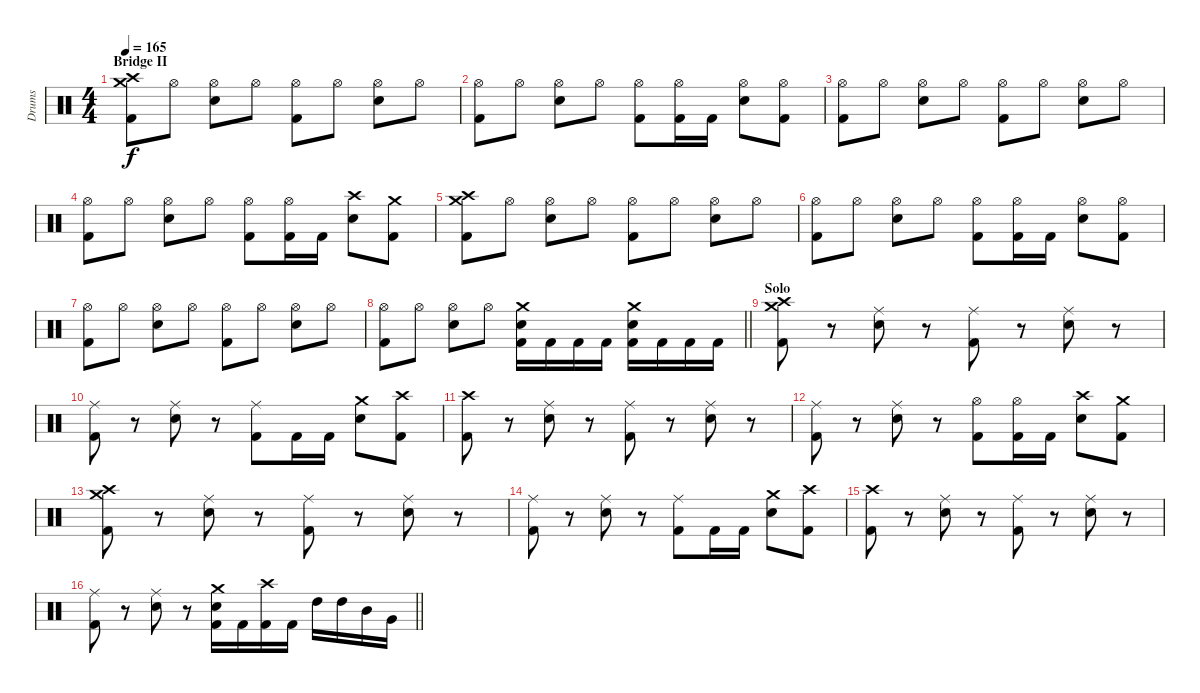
\track ("Drums" "Drums") {instrument percussion}
\staff {score}
\articulation defaults
\ts (4 4)
\section ("" "Bridge II")
\tempo 165
\clef neutral
\ks c
("Crash high (hit)" "Crash medium (hit)" "Kick (hit) 2").8{dy f} "Hi-Hat (open)".8 ("Hi-Hat (open)" "Electric Snare (hit)").8 "Hi-Hat (open)".8 ("Hi-Hat (open)" "Kick (hit) 2").8 "Hi-Hat (open)".8 ("Hi-Hat (open)" "Electric Snare (hit)").8 "Hi-Hat (open)".8 |
("Hi-Hat (open)" "Kick (hit) 2").8 "Hi-Hat (open)".8 ("Hi-Hat (open)" "Electric Snare (hit)").8 "Hi-Hat (open)".8 ("Hi-Hat (open)" "Kick (hit) 2").8 ("Hi-Hat (open)" "Kick (hit) 2").16 "Kick (hit) 2".16 ("Hi-Hat (open)" "Electric Snare (hit)").8 ("Hi-Hat (open)" "Kick (hit) 2").8 |
("Hi-Hat (open)" "Kick (hit) 2").8 "Hi-Hat (open)".8 ("Hi-Hat (open)" "Electric Snare (hit)").8 "Hi-Hat (open)".8 ("Hi-Hat (open)" "Kick (hit) 2").8 "Hi-Hat (open)".8 ("Hi-Hat (open)" "Electric Snare (hit)").8 "Hi-Hat (open)".8 |
("Hi-Hat (open)" "Kick (hit) 2").8 "Hi-Hat (open)".8 ("Hi-Hat (open)" "Electric Snare (hit)").8 "Hi-Hat (open)".8 ("Hi-Hat (open)" "Kick (hit) 2").8 ("Hi-Hat (open)" "Kick (hit) 2").16 "Kick (hit) 2".16 ("Crash high (hit)" "Electric Snare (hit)").8 ("Crash medium (hit)" "Kick (hit) 2").8 |
("Crash high (hit)" "Crash medium (hit)" "Kick (hit) 2").8 "Hi-Hat (open)".8 ("Hi-Hat (open)" "Electric Snare (hit)").8 "Hi-Hat (open)".8 ("Hi-Hat (open)" "Kick (hit) 2").8 "Hi-Hat (open)".8 ("Hi-Hat (open)" "Electric Snare (hit)").8 "Hi-Hat (open)".8 |
("Hi-Hat (open)" "Kick (hit) 2").8 "Hi-Hat (open)".8 ("Hi-Hat (open)" "Electric Snare (hit)").8 "Hi-Hat (open)".8 ("Hi-Hat (open)" "Kick (hit) 2").8 ("Hi-Hat (open)" "Kick (hit) 2").16 "Kick (hit) 2".16 ("Hi-Hat (open)" "Electric Snare (hit)").8 ("Hi-Hat (open)" "Kick (hit) 2").8 |
("Hi-Hat (open)" "Kick (hit) 2").8 "Hi-Hat (open)".8 ("Hi-Hat (open)" "Electric Snare (hit)").8 "Hi-Hat (open)".8 ("Hi-Hat (open)" "Kick (hit) 2").8 "Hi-Hat (open)".8 ("Hi-Hat (open)" "Electric Snare (hit)").8 "Hi-Hat (open)".8 |
\barLineRight lightlight
("Hi-Hat (open)" "Kick (hit) 2").8 "Hi-Hat (open)".8 ("Hi-Hat (open)" "Electric Snare (hit)").8 "Hi-Hat (open)".8 ("Crash medium (hit)" "Electric Snare (hit)" "Kick (hit) 2").16 "Kick (hit) 2".16 "Kick (hit) 2".16 "Kick (hit) 2".16 ("Crash medium (hit)" "Electric Snare (hit)" "Kick (hit) 2").16 "Kick (hit) 2".16 "Kick (hit) 2".16 "Kick (hit) 2".16 |
\section ("" "Solo")
("Crash high (hit)" "Crash medium (hit)" "Kick (hit) 2").8 r.8 ("Ride (middle)" "Electric Snare (hit)").8 r.8 ("Ride (middle)" "Kick (hit) 2").8 r.8 ("Ride (middle)" "Electric Snare (hit)").8 r.8 |
("Ride (middle)" "Kick (hit) 2").8 r.8 ("Ride (middle)" "Electric Snare (hit)").8 r.8 ("Ride (middle)" "Kick (hit) 2").8 "Kick (hit) 2".16 "Kick (hit) 2".16 ("Crash medium (hit)" "Electric Snare (hit)").8 ("Crash high (hit)" "Kick (hit) 2").8 |
("Crash high (hit)" "Kick (hit) 2").8 r.8 ("Ride (middle)" "Electric Snare (hit)").8 r.8 ("Ride (middle)" "Kick (hit) 2").8 r.8 ("Ride (middle)" "Electric Snare (hit)").8 r.8 |
("Ride (middle)" "Kick (hit) 2").8 r.8 ("Ride (middle)" "Electric Snare (hit)").8 r.8 ("Hi-Hat (open)" "Kick (hit) 2").8 ("Hi-Hat (open)" "Kick (hit) 2").16 "Kick (hit) 2".16 ("Crash high (hit)" "Electric Snare (hit)").8 ("Crash medium (hit)" "Kick (hit) 2").8 |
("Crash high (hit)" "Crash medium (hit)" "Kick (hit) 2").8 r.8 ("Ride (middle)" "Electric Snare (hit)").8 r.8 ("Ride (middle)" "Kick (hit) 2").8 r.8 ("Ride (middle)" "Electric Snare (hit)").8 r.8 |
("Ride (middle)" "Kick (hit) 2").8 r.8 ("Ride (middle)" "Electric Snare (hit)").8 r.8 ("Ride (middle)" "Kick (hit) 2").8 "Kick (hit) 2".16 "Kick (hit) 2".16 ("Crash medium (hit)" "Electric Snare (hit)").8 ("Crash high (hit)" "Kick (hit) 2").8 |
("Crash high (hit)" "Kick (hit) 2").8 r.8 ("Ride (middle)" "Electric Snare (hit)").8 r.8 ("Ride (middle)" "Kick (hit) 2").8 r.8 ("Ride (middle)" "Electric Snare (hit)").8 r.8 |
\barLineRight lightlight
("Ride (middle)" "Kick (hit) 2").8 r.8 ("Ride (middle)" "Electric Snare (hit)").8 r.8 ("Crash medium (hit)" "Electric Snare (hit)" "Kick (hit) 2").16 "Kick (hit) 2".16 ("Crash high (hit)" "Kick (hit) 2").16 "Kick (hit) 2".16 "High Tom (hit)".16 "High Tom (hit)".16 "Mid Tom (hit)".16 "Very Low Tom (hit)".16
